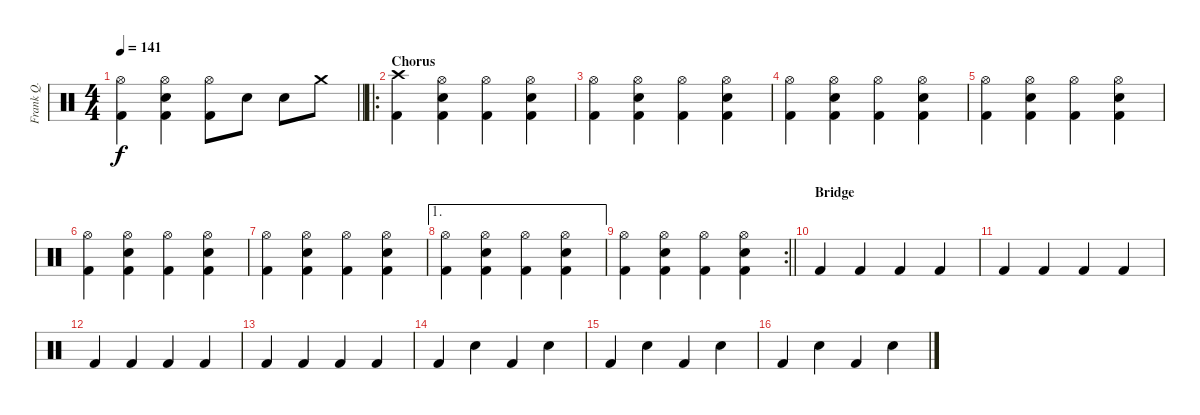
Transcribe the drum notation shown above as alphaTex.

\track ("Frank Q." "Frank Q.") {instrument percussion}
\staff {score}
\articulation defaults
\ts (4 4)
\tempo 141
\clef neutral
\barLineRight lightlight
\ks c
("Hi-Hat (open)" "Kick (hit) 2").4{dy f} ("Hi-Hat (open)" "Electric Snare (hit)" "Kick (hit) 2").4 ("Hi-Hat (open)" "Kick (hit) 2").8 "Electric Snare (hit)".8 "Electric Snare (hit)".8 "Crash medium (hit)".8 |
\ro
\section ("" "Chorus")
("Crash high (hit)" "Kick (hit) 2").4 ("Hi-Hat (open)" "Electric Snare (hit)" "Kick (hit) 2").4 ("Hi-Hat (open)" "Kick (hit) 2").4 ("Hi-Hat (open)" "Electric Snare (hit)" "Kick (hit) 2").4 |
("Hi-Hat (open)" "Kick (hit) 2").4 ("Hi-Hat (open)" "Electric Snare (hit)" "Kick (hit) 2").4 ("Hi-Hat (open)" "Kick (hit) 2").4 ("Hi-Hat (open)" "Electric Snare (hit)" "Kick (hit) 2").4 |
("Hi-Hat (open)" "Kick (hit) 2").4 ("Hi-Hat (open)" "Electric Snare (hit)" "Kick (hit) 2").4 ("Hi-Hat (open)" "Kick (hit) 2").4 ("Hi-Hat (open)" "Electric Snare (hit)" "Kick (hit) 2").4 |
("Hi-Hat (open)" "Kick (hit) 2").4 ("Hi-Hat (open)" "Electric Snare (hit)" "Kick (hit) 2").4 ("Hi-Hat (open)" "Kick (hit) 2").4 ("Hi-Hat (open)" "Electric Snare (hit)" "Kick (hit) 2").4 |
("Hi-Hat (open)" "Kick (hit) 2").4 ("Hi-Hat (open)" "Electric Snare (hit)" "Kick (hit) 2").4 ("Hi-Hat (open)" "Kick (hit) 2").4 ("Hi-Hat (open)" "Electric Snare (hit)" "Kick (hit) 2").4 |
("Hi-Hat (open)" "Kick (hit) 2").4 ("Hi-Hat (open)" "Electric Snare (hit)" "Kick (hit) 2").4 ("Hi-Hat (open)" "Kick (hit) 2").4 ("Hi-Hat (open)" "Electric Snare (hit)" "Kick (hit) 2").4 |
\ae 1
("Hi-Hat (open)" "Kick (hit) 2").4 ("Hi-Hat (open)" "Electric Snare (hit)" "Kick (hit) 2").4 ("Hi-Hat (open)" "Kick (hit) 2").4 ("Hi-Hat (open)" "Electric Snare (hit)" "Kick (hit) 2").4 |
\rc 2
\barLineRight lightlight
("Hi-Hat (open)" "Kick (hit) 2").4 ("Hi-Hat (open)" "Electric Snare (hit)" "Kick (hit) 2").4 ("Hi-Hat (open)" "Kick (hit) 2").4 ("Hi-Hat (open)" "Electric Snare (hit)" "Kick (hit) 2").4 |
\section ("" "Bridge")
"Kick (hit) 2".4 "Kick (hit) 2".4 "Kick (hit) 2".4 "Kick (hit) 2".4 |
"Kick (hit) 2".4 "Kick (hit) 2".4 "Kick (hit) 2".4 "Kick (hit) 2".4 |
"Kick (hit) 2".4 "Kick (hit) 2".4 "Kick (hit) 2".4 "Kick (hit) 2".4 |
"Kick (hit) 2".4 "Kick (hit) 2".4 "Kick (hit) 2".4 "Kick (hit) 2".4 |
"Kick (hit) 2".4 "Electric Snare (hit)".4 "Kick (hit) 2".4 "Electric Snare (hit)".4 |
"Kick (hit) 2".4 "Electric Snare (hit)".4 "Kick (hit) 2".4 "Electric Snare (hit)".4 |
"Kick (hit) 2".4 "Electric Snare (hit)".4 "Kick (hit) 2".4 "Electric Snare (hit)".4
